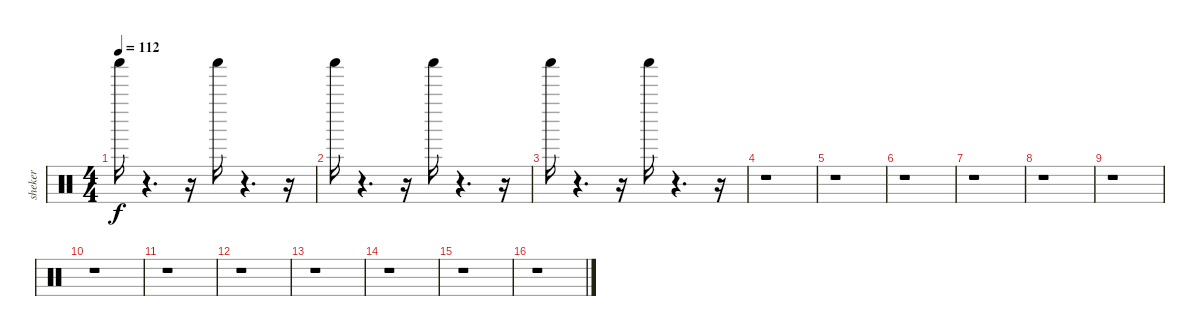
\track ("sheker" "sheker") {instrument percussion}
\staff {score}
\articulation defaults
\ts (4 4)
\tempo 112
\clef neutral
\ks c "Shaker (hit)".16{dy f}
r.4{d} r.16 "Shaker (hit)".16 r.4{d} r.16 |
"Shaker (hit)".16 r.4{d} r.16 "Shaker (hit)".16 r.4{d} r.16 |
"Shaker (hit)".16 r.4{d} r.16 "Shaker (hit)".16 r.4{d} r.16 |
r.1 |
r.1 |
r.1 |
r.1 |
r.1 |
r.1 |
r.1 |
r.1 |
r.1 |
r.1 |
r.1 |
r.1 |
r.1
